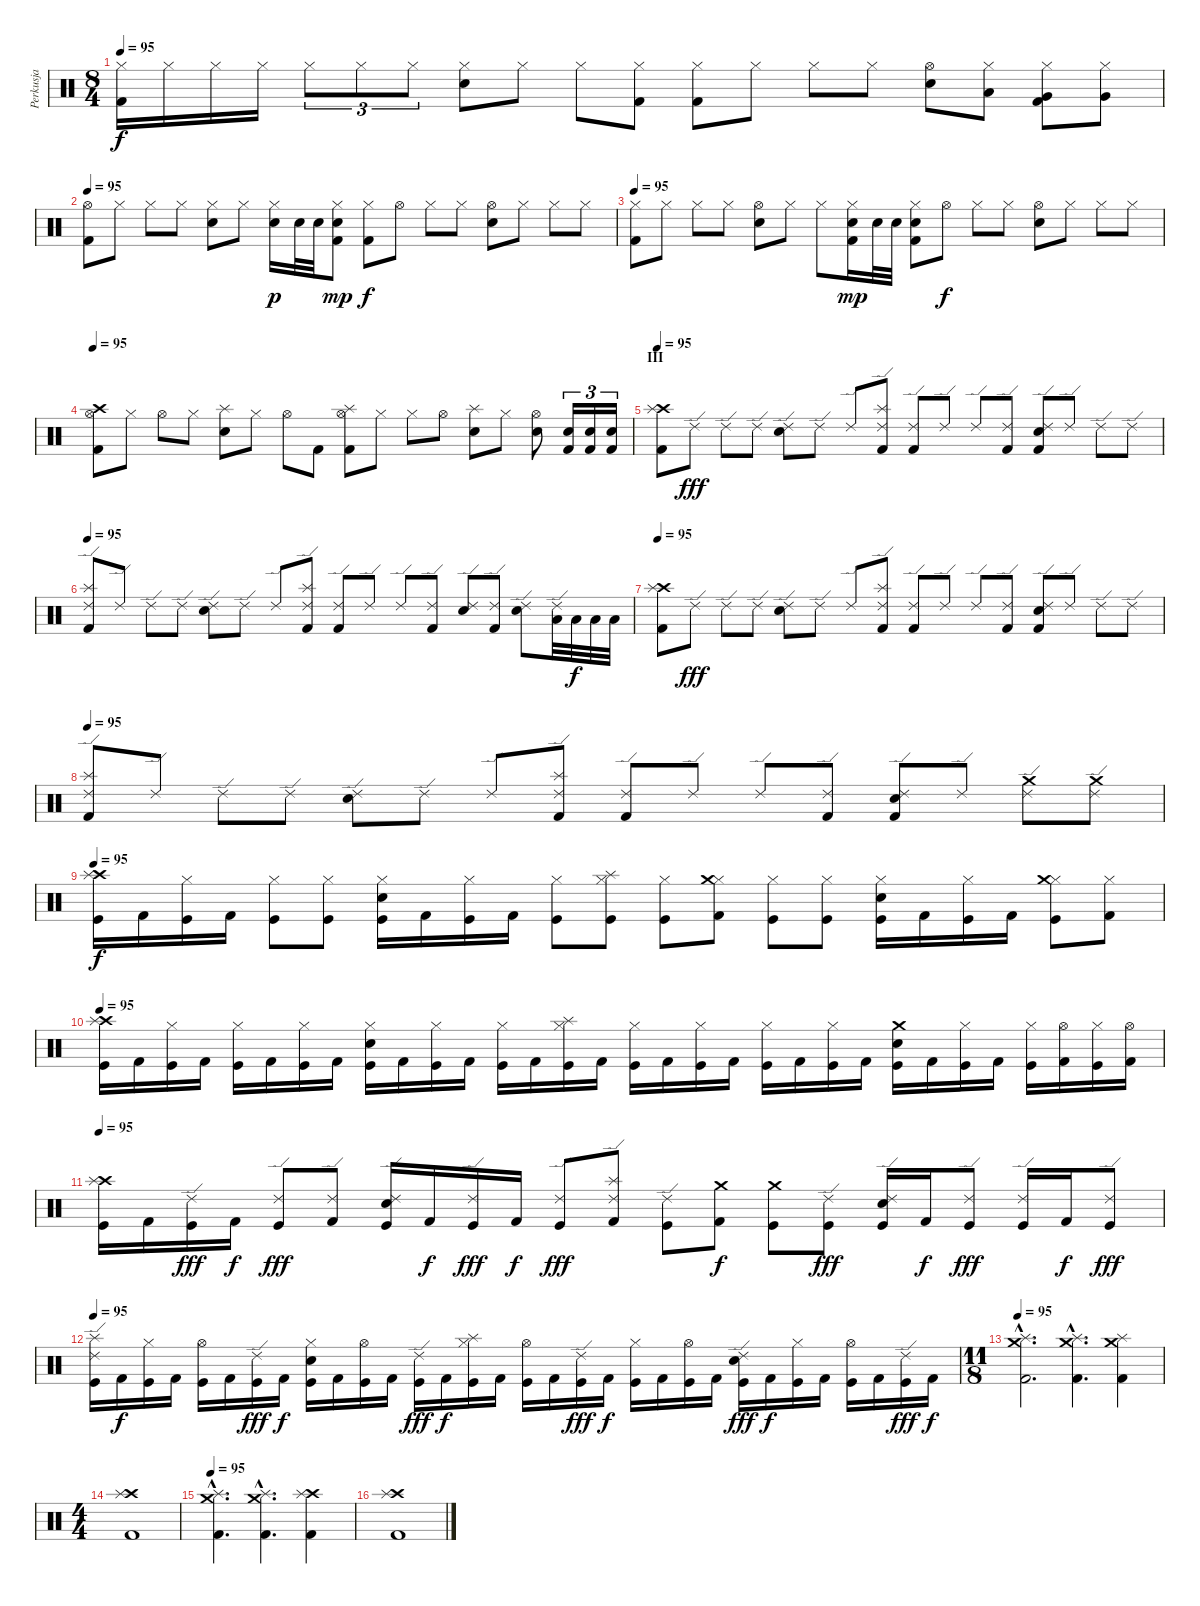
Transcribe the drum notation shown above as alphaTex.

\track ("Perkusja" "Perkusja") {instrument percussion}
\staff {score}
\articulation defaults
\ts (8 4)
\tempo 95
\clef neutral
\ks c
("Hi-Hat (closed)" "Kick (hit) 2").16{dy f} "Hi-Hat (closed)".16 "Hi-Hat (closed)".16 "Hi-Hat (closed)".16 "Hi-Hat (closed)".8{tu (3 2)} "Hi-Hat (closed)".8{tu (3 2)} "Hi-Hat (closed)".8{tu (3 2)} ("Hi-Hat (closed)" "Electric Snare (hit)").8 "Hi-Hat (closed)".8 "Hi-Hat (closed)".8 ("Hi-Hat (closed)" "Kick (hit) 2").8 ("Hi-Hat (closed)" "Kick (hit) 2").8 "Hi-Hat (closed)".8 "Hi-Hat (closed)".8 "Hi-Hat (closed)".8 ("Hi-Hat (open)" "Electric Snare (hit)").8 ("Hi-Hat (closed)" "Low Floor Tom (hit)").8 ("Hi-Hat (closed)" "Very Low Tom (hit)" "Kick (hit) 2").8 ("Hi-Hat (closed)" "Very Low Tom (hit)").8 |
\tempo 95
("Hi-Hat (open)" "Kick (hit) 2").8 "Hi-Hat (closed)".8 "Hi-Hat (closed)".8 "Hi-Hat (closed)".8 ("Hi-Hat (closed)" "Electric Snare (hit)").8 "Hi-Hat (closed)".8 ("Hi-Hat (closed)" "Electric Snare (hit)").16{dy p} "Electric Snare (hit)".32 "Electric Snare (hit)".32 ("Hi-Hat (closed)" "Electric Snare (hit)" "Kick (hit) 2").8{dy mp} ("Hi-Hat (closed)" "Kick (hit) 2").8{dy f} "Hi-Hat (open)".8 "Hi-Hat (closed)".8 "Hi-Hat (closed)".8 ("Hi-Hat (open)" "Electric Snare (hit)").8 "Hi-Hat (closed)".8 "Hi-Hat (closed)".8 "Hi-Hat (closed)".8 |
\tempo 95
("Hi-Hat (closed)" "Kick (hit) 2").8 "Hi-Hat (closed)".8 "Hi-Hat (closed)".8 "Hi-Hat (closed)".8 ("Hi-Hat (open)" "Electric Snare (hit)").8 "Hi-Hat (closed)".8 "Hi-Hat (closed)".8 ("Hi-Hat (closed)" "Electric Snare (hit)" "Kick (hit) 2").16{dy mp} "Electric Snare (hit)".32 "Electric Snare (hit)".32 ("Hi-Hat (closed)" "Electric Snare (hit)" "Kick (hit) 2").8 "Hi-Hat (open)".8{dy f} "Hi-Hat (closed)".8 "Hi-Hat (closed)".8 ("Hi-Hat (open)" "Electric Snare (hit)").8 "Hi-Hat (closed)".8 "Hi-Hat (closed)".8 "Hi-Hat (closed)".8 |
\tempo 95
("Hi-Hat (open)" "Crash high (hit)" "Kick (hit) 2").8 "Hi-Hat (closed)".8 "Hi-Hat (open)".8 "Hi-Hat (closed)".8 ("Splash (hit)" "Electric Snare (hit)").8 "Hi-Hat (closed)".8 "Hi-Hat (open)".8 "Kick (hit) 2".8 ("Hi-Hat (open)" "Splash (hit)" "Kick (hit) 2").8 "Hi-Hat (closed)".8 "Hi-Hat (closed)".8 "Hi-Hat (open)".8 ("Splash (hit)" "Electric Snare (hit)").8 "Hi-Hat (closed)".8 ("Hi-Hat (open)" "Electric Snare (hit)").8 ("Electric Snare (hit)" "Kick (hit) 2").16{tu (3 2)} ("Electric Snare (hit)" "Kick (hit) 2").16{tu (3 2)} ("Electric Snare (hit)" "Kick (hit) 2").16{tu (3 2)} |
\section ("" "III")
\tempo 95
("Crash high (hit)" "Splash (hit)" "Kick (hit) 2").8 "Ride (edge) 2".8{dy fff} "Ride (edge) 2".8 "Ride (edge) 2".8 ("Ride (edge) 2" "Electric Snare (hit)").8 "Ride (edge) 2".8 "Ride (edge) 2".8 ("Ride (edge) 2" "Splash (hit)" "Kick (hit) 2").8 ("Ride (edge) 2" "Kick (hit) 2").8 "Ride (edge) 2".8 "Ride (edge) 2".8 ("Ride (edge) 2" "Kick (hit) 2").8 ("Ride (edge) 2" "Electric Snare (hit)" "Kick (hit) 2").8 "Ride (edge) 2".8 "Ride (edge) 2".8 "Ride (edge) 2".8 |
\tempo 95
("Ride (edge) 2" "Splash (hit)" "Kick (hit) 2").8 "Ride (edge) 2".8 "Ride (edge) 2".8 "Ride (edge) 2".8 ("Ride (edge) 2" "Electric Snare (hit)").8 "Ride (edge) 2".8 "Ride (edge) 2".8 ("Ride (edge) 2" "Splash (hit)" "Kick (hit) 2").8 ("Ride (edge) 2" "Kick (hit) 2").8 "Ride (edge) 2".8 "Ride (edge) 2".8 ("Ride (edge) 2" "Kick (hit) 2").8 ("Ride (edge) 2" "Electric Snare (hit)").8 ("Ride (edge) 2" "Kick (hit) 2").8 ("Ride (edge) 2" "Electric Snare (hit)").8 ("Ride (edge) 2" "Low Floor Tom (hit)").32 "Low Floor Tom (hit)".32{dy f} "Low Floor Tom (hit)".32 "Low Floor Tom (hit)".32 |
\tempo 95
("Crash high (hit)" "Splash (hit)" "Kick (hit) 2").8 "Ride (edge) 2".8{dy fff} "Ride (edge) 2".8 "Ride (edge) 2".8 ("Ride (edge) 2" "Electric Snare (hit)").8 "Ride (edge) 2".8 "Ride (edge) 2".8 ("Ride (edge) 2" "Splash (hit)" "Kick (hit) 2").8 ("Ride (edge) 2" "Kick (hit) 2").8 "Ride (edge) 2".8 "Ride (edge) 2".8 ("Ride (edge) 2" "Kick (hit) 2").8 ("Ride (edge) 2" "Electric Snare (hit)" "Kick (hit) 2").8 "Ride (edge) 2".8 "Ride (edge) 2".8 "Ride (edge) 2".8 |
\tempo 95
("Ride (edge) 2" "Splash (hit)" "Kick (hit) 2").8 "Ride (edge) 2".8 "Ride (edge) 2".8 "Ride (edge) 2".8 ("Ride (edge) 2" "Electric Snare (hit)").8 "Ride (edge) 2".8 "Ride (edge) 2".8 ("Ride (edge) 2" "Splash (hit)" "Kick (hit) 2").8 ("Ride (edge) 2" "Kick (hit) 2").8 "Ride (edge) 2".8 "Ride (edge) 2".8 ("Ride (edge) 2" "Kick (hit) 2").8 ("Ride (edge) 2" "Electric Snare (hit)" "Kick (hit) 2").8 "Ride (edge) 2".8 ("Ride (edge) 2" "Crash medium (hit)").8 ("Ride (edge) 2" "Crash medium (hit)").8 |
\tempo 95
("Crash high (hit)" "Splash (hit)" "Kick (hit)").16{dy f} "Kick (hit) 2".16 ("Hi-Hat (closed)" "Kick (hit)").16 "Kick (hit) 2".16 ("Hi-Hat (closed)" "Kick (hit)").8 ("Hi-Hat (closed)" "Kick (hit)").8 ("Hi-Hat (closed)" "Electric Snare (hit)" "Kick (hit)").16 "Kick (hit) 2".16 ("Hi-Hat (closed)" "Kick (hit)").16 "Kick (hit) 2".16 ("Hi-Hat (closed)" "Kick (hit)").8 ("Hi-Hat (closed)" "Splash (hit)" "Kick (hit)").8 ("Hi-Hat (closed)" "Kick (hit)").8 ("Hi-Hat (closed)" "Crash medium (hit)" "Kick (hit) 2").8 ("Hi-Hat (closed)" "Kick (hit)").8 ("Hi-Hat (closed)" "Kick (hit)").8 ("Hi-Hat (closed)" "Electric Snare (hit)" "Kick (hit)").16 "Kick (hit) 2".16 ("Hi-Hat (closed)" "Kick (hit)").16 "Kick (hit) 2".16 ("Hi-Hat (closed)" "Crash medium (hit)" "Kick (hit)").8 ("Hi-Hat (closed)" "Kick (hit) 2").8 |
\tempo 95
("Crash high (hit)" "Splash (hit)" "Kick (hit)").16 "Kick (hit) 2".16 ("Hi-Hat (closed)" "Kick (hit)").16 "Kick (hit) 2".16 ("Hi-Hat (closed)" "Kick (hit)").16 "Kick (hit) 2".16 ("Hi-Hat (closed)" "Kick (hit)").16 "Kick (hit) 2".16 ("Hi-Hat (closed)" "Electric Snare (hit)" "Kick (hit)").16 "Kick (hit) 2".16 ("Hi-Hat (closed)" "Kick (hit)").16 "Kick (hit) 2".16 ("Hi-Hat (closed)" "Kick (hit)").16 "Kick (hit) 2".16 ("Hi-Hat (closed)" "Splash (hit)" "Kick (hit)").16 "Kick (hit) 2".16 ("Hi-Hat (closed)" "Kick (hit)").16 "Kick (hit) 2".16 ("Hi-Hat (closed)" "Kick (hit)").16 "Kick (hit) 2".16 ("Hi-Hat (closed)" "Kick (hit)").16 "Kick (hit) 2".16 ("Hi-Hat (closed)" "Kick (hit)").16 "Kick (hit) 2".16 ("Crash medium (hit)" "Electric Snare (hit)" "Kick (hit)").16 "Kick (hit) 2".16 ("Hi-Hat (closed)" "Kick (hit)").16 "Kick (hit) 2".16 ("Hi-Hat (closed)" "Kick (hit)").16 ("Hi-Hat (open)" "Kick (hit) 2").16 ("Hi-Hat (closed)" "Kick (hit)").16 ("Hi-Hat (open)" "Kick (hit) 2").16 |
\tempo 95
("Crash high (hit)" "Splash (hit)" "Kick (hit)").16 "Kick (hit) 2".16 ("Ride (edge) 2" "Kick (hit)").16{dy fff} "Kick (hit) 2".16{dy f} ("Ride (edge) 2" "Kick (hit)").8{dy fff} ("Ride (edge) 2" "Kick (hit) 2").8 ("Ride (edge) 2" "Electric Snare (hit)" "Kick (hit)").16 "Kick (hit) 2".16{dy f} ("Ride (edge) 2" "Kick (hit)").16{dy fff} "Kick (hit) 2".16{dy f} ("Ride (edge) 2" "Kick (hit)").8{dy fff} ("Ride (edge) 2" "Splash (hit)" "Kick (hit) 2").8 ("Ride (edge) 2" "Kick (hit)").8 ("Crash medium (hit)" "Kick (hit) 2").8{dy f} ("Crash medium (hit)" "Kick (hit)").8 ("Ride (edge) 2" "Kick (hit)").8{dy fff} ("Ride (edge) 2" "Electric Snare (hit)" "Kick (hit)").16 "Kick (hit) 2".16{dy f} ("Ride (edge) 2" "Kick (hit)").8{dy fff} ("Ride (edge) 2" "Kick (hit)").16 "Kick (hit) 2".16{dy f} ("Ride (edge) 2" "Kick (hit)").8{dy fff} |
\tempo 95
("Ride (edge) 2" "Splash (hit)" "Kick (hit)").16 "Kick (hit) 2".16{dy f} ("Hi-Hat (closed)" "Kick (hit)").16 "Kick (hit) 2".16 ("Hi-Hat (open)" "Kick (hit)").16 "Kick (hit) 2".16 ("Ride (edge) 2" "Kick (hit)").16{dy fff} "Kick (hit) 2".16{dy f} ("Hi-Hat (closed)" "Electric Snare (hit)" "Kick (hit)").16 "Kick (hit) 2".16 ("Hi-Hat (open)" "Kick (hit)").16 "Kick (hit) 2".16 ("Ride (edge) 2" "Kick (hit)").16{dy fff} "Kick (hit) 2".16{dy f} ("Hi-Hat (closed)" "Splash (hit)" "Kick (hit)").16 "Kick (hit) 2".16 ("Hi-Hat (open)" "Kick (hit)").16 "Kick (hit) 2".16 ("Ride (edge) 2" "Kick (hit)").16{dy fff} "Kick (hit) 2".16{dy f} ("Hi-Hat (closed)" "Kick (hit)").16 "Kick (hit) 2".16 ("Hi-Hat (open)" "Kick (hit)").16 "Kick (hit) 2".16 ("Ride (edge) 2" "Electric Snare (hit)" "Kick (hit)").16{dy fff} "Kick (hit) 2".16{dy f} ("Hi-Hat (closed)" "Kick (hit)").16 "Kick (hit) 2".16 ("Hi-Hat (open)" "Kick (hit)").16 "Kick (hit) 2".16 ("Ride (edge) 2" "Kick (hit)").16{dy fff} "Kick (hit) 2".16{dy f} |
\ts (11 8)
\tempo 95
("Crash medium (hit)"{hac} "Splash (hit)"{hac} "Kick (hit) 2"{hac}).2{d} ("Crash medium (hit)"{hac} "Splash (hit)"{hac} "Kick (hit) 2"{hac}).4{d} ("Crash medium (hit)" "Splash (hit)" "Kick (hit) 2").4 |
\ts (4 4)
("Crash high (hit)" "Splash (hit)" "Kick (hit) 2").1 |
\tempo 95
("Crash medium (hit)"{hac} "Splash (hit)"{hac} "Kick (hit) 2"{hac}).4{d} ("Crash medium (hit)"{hac} "Splash (hit)"{hac} "Kick (hit) 2"{hac}).4{d} ("Crash high (hit)" "Splash (hit)" "Kick (hit) 2").4 |
("Crash high (hit)" "Splash (hit)" "Kick (hit) 2").1
